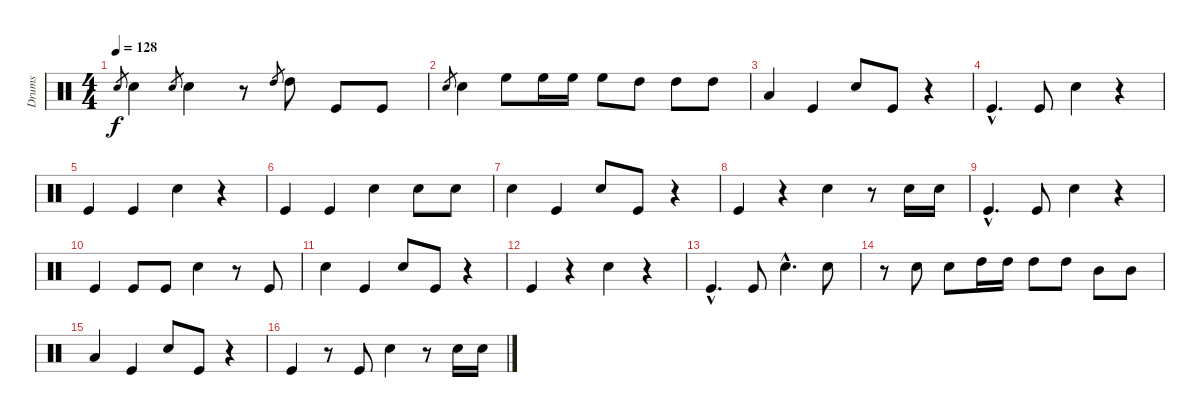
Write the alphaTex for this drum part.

\track ("Drums" "Drums") {instrument percussion}
\staff {score}
\articulation defaults
\ts (4 4)
\tempo 128
\clef neutral
\ks c "Snare (hit) 2".8{gr dy f} "Snare (hit) 2".4 "Snare (hit) 2".8{gr} "Snare (hit) 2".4
r.8 "High Tom (hit)".8{gr} "High Tom (hit)".8 "Kick (hit)".8 "Kick (hit)".8 |
"Snare (hit) 2".8{gr} "Snare (hit) 2".4 "High Floor Tom (hit)".8 "High Floor Tom (hit)".16 "High Floor Tom (hit)".16 "High Floor Tom (hit)".8 "High Tom (hit)".8 "High Tom (hit)".8 "High Tom (hit)".8 |
"Low Tom (hit)".4 "Kick (hit)".4 "Snare (hit) 2".8 "Kick (hit)".8 r.4 |
"Kick (hit)"{hac}.4{d} "Kick (hit)".8 "Snare (hit) 2".4 r.4 |
"Kick (hit)".4 "Kick (hit)".4 "Snare (hit) 2".4 r.4 |
"Kick (hit)".4 "Kick (hit)".4 "Snare (hit) 2".4 "Snare (hit) 2".8 "Snare (hit) 2".8 |
"Snare (hit) 2".4 "Kick (hit)".4 "Snare (hit) 2".8 "Kick (hit)".8 r.4 |
"Kick (hit)".4 r.4 "Snare (hit) 2".4 r.8 "Snare (hit) 2".16 "Snare (hit) 2".16 |
"Kick (hit)"{hac}.4{d} "Kick (hit)".8 "Snare (hit) 2".4 r.4 |
"Kick (hit)".4 "Kick (hit)".8 "Kick (hit)".8 "Snare (hit) 2".4 r.8 "Kick (hit)".8 |
"Snare (hit) 2".4 "Kick (hit)".4 "Snare (hit) 2".8 "Kick (hit)".8 r.4 |
"Kick (hit)".4 r.4 "Snare (hit) 2".4 r.4 |
"Kick (hit)"{hac}.4{d} "Kick (hit)".8 "Snare (hit) 2"{hac}.4{d} "Snare (hit) 2".8 |
r.8 "Snare (hit) 2".8 "Snare (hit) 2".8 "High Tom (hit)".16 "High Tom (hit)".16 "High Tom (hit)".8 "High Tom (hit)".8 "Mid Tom (hit)".8 "Mid Tom (hit)".8 |
"Low Tom (hit)".4 "Kick (hit)".4 "Snare (hit) 2".8 "Kick (hit)".8 r.4 |
"Kick (hit)".4 r.8 "Kick (hit)".8 "Snare (hit) 2".4 r.8 "Snare (hit) 2".16 "Snare (hit) 2".16
